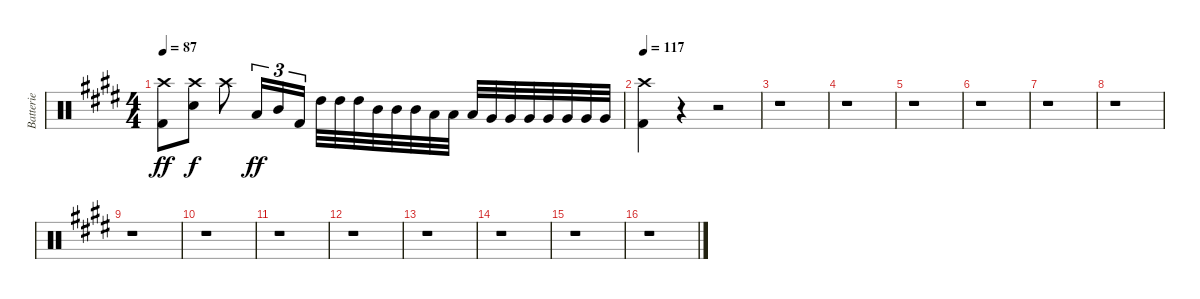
\track ("Batterie" "Batterie") {instrument percussion}
\staff {score}
\articulation defaults
\ts (4 4)
\tempo 87
\clef neutral
\ks e
("Crash high (hit)" "Kick (hit) 2").8{dy ff} ("Crash high (hit)" "Snare (hit) 2").8{dy f} "Crash high (hit)".8 "Low Tom (hit)".16{tu (3 2) dy ff} "Mid Tom (hit)".16{tu (3 2)} "Kick (hit) 2".16{tu (3 2)} "High Tom (hit)".32 "High Tom (hit)".32 "High Tom (hit)".32 "Mid Tom (hit)".32 "Mid Tom (hit)".32 "Mid Tom (hit)".32 "Low Tom (hit)".32 "Low Tom (hit)".32 "Low Tom (hit)".32 "Very Low Tom (hit)".32 "Very Low Tom (hit)".32 "Very Low Tom (hit)".32 "Very Low Tom (hit)".32 "Very Low Tom (hit)".32 "Very Low Tom (hit)".32 "Very Low Tom (hit)".32 |
\tempo 117
("Crash high (hit)" "Kick (hit) 2").4 r.4 r.2 |
r.1 |
r.1 |
r.1 |
r.1 |
r.1 |
r.1 |
r.1 |
r.1 |
r.1 |
r.1 |
r.1 |
r.1 |
r.1 |
r.1
